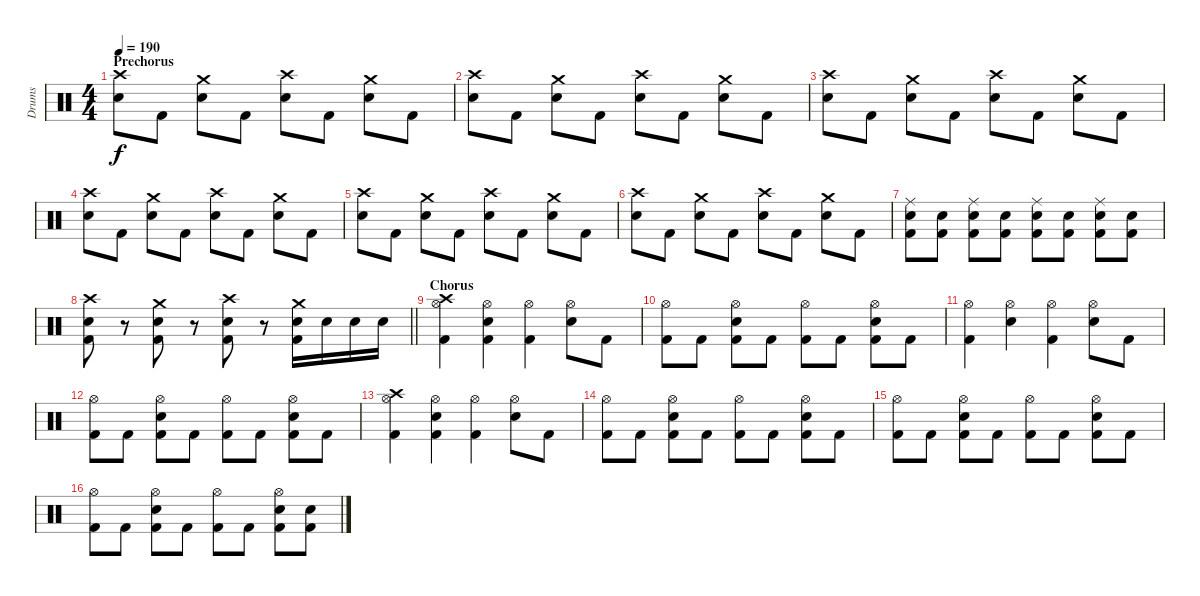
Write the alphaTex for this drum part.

\track ("Drums" "Drums") {instrument percussion}
\staff {score}
\articulation defaults
\ts (4 4)
\section ("" "Prechorus")
\tempo 190
\clef neutral
\ks c
("Crash high (hit)" "Snare (hit) 2").8{dy f} "Kick (hit) 2".8 ("Crash medium (hit)" "Snare (hit) 2").8 "Kick (hit) 2".8 ("Crash high (hit)" "Snare (hit) 2").8 "Kick (hit) 2".8 ("Crash medium (hit)" "Snare (hit) 2").8 "Kick (hit) 2".8 |
("Crash high (hit)" "Snare (hit) 2").8 "Kick (hit) 2".8 ("Crash medium (hit)" "Snare (hit) 2").8 "Kick (hit) 2".8 ("Crash high (hit)" "Snare (hit) 2").8 "Kick (hit) 2".8 ("Crash medium (hit)" "Snare (hit) 2").8 "Kick (hit) 2".8 |
("Crash high (hit)" "Snare (hit) 2").8 "Kick (hit) 2".8 ("Crash medium (hit)" "Snare (hit) 2").8 "Kick (hit) 2".8 ("Crash high (hit)" "Snare (hit) 2").8 "Kick (hit) 2".8 ("Crash medium (hit)" "Snare (hit) 2").8 "Kick (hit) 2".8 |
("Crash high (hit)" "Snare (hit) 2").8 "Kick (hit) 2".8 ("Crash medium (hit)" "Snare (hit) 2").8 "Kick (hit) 2".8 ("Crash high (hit)" "Snare (hit) 2").8 "Kick (hit) 2".8 ("Crash medium (hit)" "Snare (hit) 2").8 "Kick (hit) 2".8 |
("Crash high (hit)" "Snare (hit) 2").8 "Kick (hit) 2".8 ("Crash medium (hit)" "Snare (hit) 2").8 "Kick (hit) 2".8 ("Crash high (hit)" "Snare (hit) 2").8 "Kick (hit) 2".8 ("Crash medium (hit)" "Snare (hit) 2").8 "Kick (hit) 2".8 |
("Crash high (hit)" "Snare (hit) 2").8 "Kick (hit) 2".8 ("Crash medium (hit)" "Snare (hit) 2").8 "Kick (hit) 2".8 ("Crash high (hit)" "Snare (hit) 2").8 "Kick (hit) 2".8 ("Crash medium (hit)" "Snare (hit) 2").8 "Kick (hit) 2".8 |
("Ride (middle)" "Snare (hit) 2" "Kick (hit) 2").8 ("Snare (hit) 2" "Kick (hit) 2").8 ("Ride (middle)" "Snare (hit) 2" "Kick (hit) 2").8 ("Snare (hit) 2" "Kick (hit) 2").8 ("Ride (middle)" "Snare (hit) 2" "Kick (hit) 2").8 ("Snare (hit) 2" "Kick (hit) 2").8 ("Ride (middle)" "Snare (hit) 2" "Kick (hit) 2").8 ("Snare (hit) 2" "Kick (hit) 2").8 |
\barLineRight lightlight
("Crash high (hit)" "Snare (hit) 2" "Kick (hit) 2").8 r.8 ("Crash medium (hit)" "Snare (hit) 2" "Kick (hit) 2").8 r.8 ("Crash high (hit)" "Snare (hit) 2" "Kick (hit) 2").8 r.8 ("Crash medium (hit)" "Snare (hit) 2" "Kick (hit) 2").16 "Snare (hit) 2".16 "Snare (hit) 2".16 "Snare (hit) 2".16 |
\section ("" "Chorus")
("Crash high (hit)" "Hi-Hat (open)" "Kick (hit) 2").4 ("Hi-Hat (open)" "Snare (hit) 2" "Kick (hit) 2").4 ("Hi-Hat (open)" "Kick (hit) 2").4 ("Hi-Hat (open)" "Snare (hit) 2").8 "Kick (hit) 2".8 |
("Hi-Hat (open)" "Kick (hit) 2").8 "Kick (hit) 2".8 ("Hi-Hat (open)" "Snare (hit) 2" "Kick (hit) 2").8 "Kick (hit) 2".8 ("Hi-Hat (open)" "Kick (hit) 2").8 "Kick (hit) 2".8 ("Hi-Hat (open)" "Snare (hit) 2" "Kick (hit) 2").8 "Kick (hit) 2".8 |
("Hi-Hat (open)" "Kick (hit) 2").4 ("Hi-Hat (open)" "Snare (hit) 2").4 ("Hi-Hat (open)" "Kick (hit) 2").4 ("Hi-Hat (open)" "Snare (hit) 2").8 "Kick (hit) 2".8 |
("Hi-Hat (open)" "Kick (hit) 2").8 "Kick (hit) 2".8 ("Hi-Hat (open)" "Snare (hit) 2" "Kick (hit) 2").8 "Kick (hit) 2".8 ("Hi-Hat (open)" "Kick (hit) 2").8 "Kick (hit) 2".8 ("Hi-Hat (open)" "Snare (hit) 2" "Kick (hit) 2").8 "Kick (hit) 2".8 |
("Crash high (hit)" "Hi-Hat (open)" "Kick (hit) 2").4 ("Hi-Hat (open)" "Snare (hit) 2" "Kick (hit) 2").4 ("Hi-Hat (open)" "Kick (hit) 2").4 ("Hi-Hat (open)" "Snare (hit) 2").8 "Kick (hit) 2".8 |
("Hi-Hat (open)" "Kick (hit) 2").8 "Kick (hit) 2".8 ("Hi-Hat (open)" "Snare (hit) 2" "Kick (hit) 2").8 "Kick (hit) 2".8 ("Hi-Hat (open)" "Kick (hit) 2").8 "Kick (hit) 2".8 ("Hi-Hat (open)" "Snare (hit) 2" "Kick (hit) 2").8 "Kick (hit) 2".8 |
("Hi-Hat (open)" "Kick (hit) 2").8 "Kick (hit) 2".8 ("Hi-Hat (open)" "Snare (hit) 2" "Kick (hit) 2").8 "Kick (hit) 2".8 ("Hi-Hat (open)" "Kick (hit) 2").8 "Kick (hit) 2".8 ("Hi-Hat (open)" "Snare (hit) 2" "Kick (hit) 2").8 "Kick (hit) 2".8 |
("Hi-Hat (open)" "Kick (hit) 2").8 "Kick (hit) 2".8 ("Hi-Hat (open)" "Snare (hit) 2" "Kick (hit) 2").8 "Kick (hit) 2".8 ("Hi-Hat (open)" "Kick (hit) 2").8 "Kick (hit) 2".8 ("Hi-Hat (open)" "Snare (hit) 2" "Kick (hit) 2").8 ("Snare (hit) 2" "Kick (hit) 2").8
